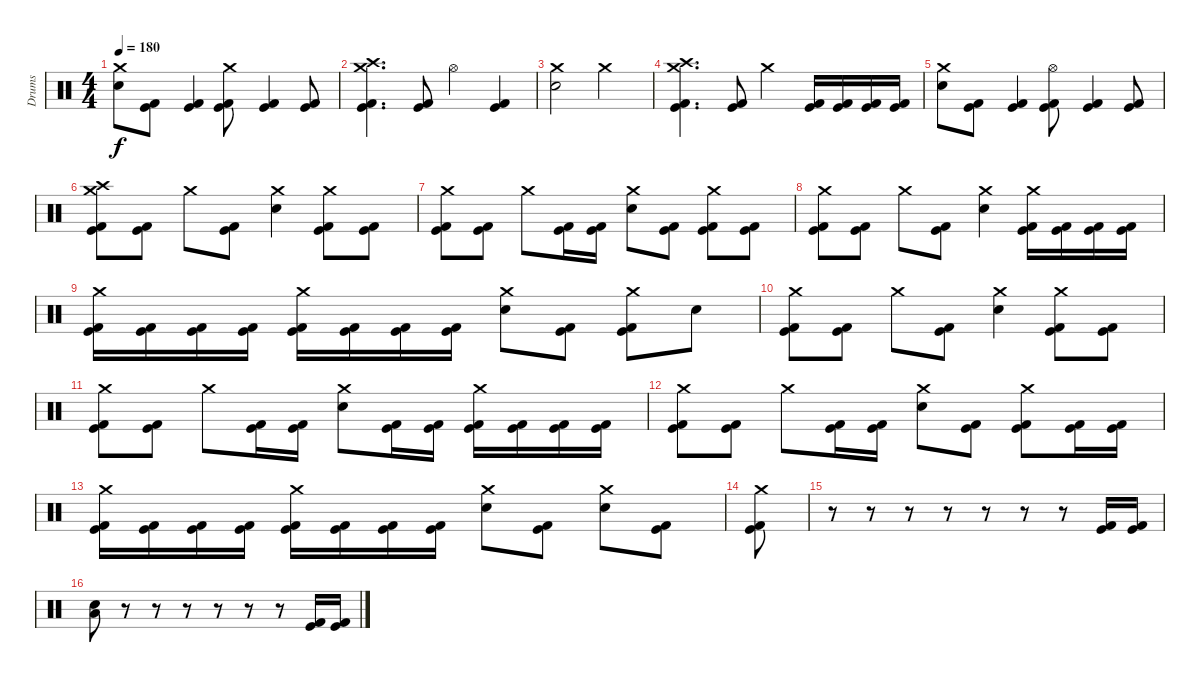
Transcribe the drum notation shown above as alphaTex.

\track ("Drums" "Drums") {instrument percussion}
\staff {score}
\articulation defaults
\ts (4 4)
\tempo 180
\clef neutral
\ks c
("Crash medium (hit)" "Electric Snare (hit)").8{dy f} ("Kick (hit)" "Kick (hit) 2").8 ("Kick (hit)" "Kick (hit) 2").4 ("Crash medium (hit)" "Kick (hit)" "Kick (hit) 2").8 ("Kick (hit)" "Kick (hit) 2").4 ("Kick (hit)" "Kick (hit) 2").8 |
("Crash high (hit)" "Crash medium (hit)" "Kick (hit)" "Kick (hit) 2").4{d} ("Kick (hit)" "Kick (hit) 2").8 "Hi-Hat (open)".4 ("Kick (hit)" "Kick (hit) 2").4 |
("Crash medium (hit)" "Electric Snare (hit)").2 "Crash medium (hit)".2 |
("Crash high (hit)" "Crash medium (hit)" "Kick (hit)" "Kick (hit) 2").4{d} ("Kick (hit)" "Kick (hit) 2").8 "Crash medium (hit)".4 ("Kick (hit)" "Kick (hit) 2").16 ("Kick (hit)" "Kick (hit) 2").16 ("Kick (hit)" "Kick (hit) 2").16 ("Kick (hit)" "Kick (hit) 2").16 |
("Crash medium (hit)" "Electric Snare (hit)").8 ("Kick (hit)" "Kick (hit) 2").8 ("Kick (hit)" "Kick (hit) 2").4 ("Hi-Hat (open)" "Kick (hit)" "Kick (hit) 2").8 ("Kick (hit)" "Kick (hit) 2").4 ("Kick (hit)" "Kick (hit) 2").8 |
("Crash high (hit)" "Crash medium (hit)" "Kick (hit)" "Kick (hit) 2").8 ("Kick (hit)" "Kick (hit) 2").8 "Crash medium (hit)".8 ("Kick (hit)" "Kick (hit) 2").8 ("Crash medium (hit)" "Electric Snare (hit)").4 ("Crash medium (hit)" "Kick (hit)" "Kick (hit) 2").8 ("Kick (hit)" "Kick (hit) 2").8 |
("Crash medium (hit)" "Kick (hit)" "Kick (hit) 2").8 ("Kick (hit)" "Kick (hit) 2").8 "Crash medium (hit)".8 ("Kick (hit)" "Kick (hit) 2").16 ("Kick (hit)" "Kick (hit) 2").16 ("Crash medium (hit)" "Electric Snare (hit)").8 ("Kick (hit)" "Kick (hit) 2").8 ("Crash medium (hit)" "Kick (hit)" "Kick (hit) 2").8 ("Kick (hit)" "Kick (hit) 2").8 |
("Crash medium (hit)" "Kick (hit)" "Kick (hit) 2").8 ("Kick (hit)" "Kick (hit) 2").8 "Crash medium (hit)".8 ("Kick (hit)" "Kick (hit) 2").8 ("Crash medium (hit)" "Electric Snare (hit)").4 ("Crash medium (hit)" "Kick (hit)" "Kick (hit) 2").16 ("Kick (hit)" "Kick (hit) 2").16 ("Kick (hit)" "Kick (hit) 2").16 ("Kick (hit)" "Kick (hit) 2").16 |
("Crash medium (hit)" "Kick (hit)" "Kick (hit) 2").16 ("Kick (hit)" "Kick (hit) 2").16 ("Kick (hit)" "Kick (hit) 2").16 ("Kick (hit)" "Kick (hit) 2").16 ("Crash medium (hit)" "Kick (hit)" "Kick (hit) 2").16 ("Kick (hit)" "Kick (hit) 2").16 ("Kick (hit)" "Kick (hit) 2").16 ("Kick (hit)" "Kick (hit) 2").16 ("Crash medium (hit)" "Electric Snare (hit)").8 ("Kick (hit)" "Kick (hit) 2").8 ("Crash medium (hit)" "Kick (hit)" "Kick (hit) 2").8 "Electric Snare (hit)".8 |
("Crash medium (hit)" "Kick (hit)" "Kick (hit) 2").8 ("Kick (hit)" "Kick (hit) 2").8 "Crash medium (hit)".8 ("Kick (hit)" "Kick (hit) 2").8 ("Crash medium (hit)" "Electric Snare (hit)").4 ("Crash medium (hit)" "Kick (hit)" "Kick (hit) 2").8 ("Kick (hit)" "Kick (hit) 2").8 |
("Crash medium (hit)" "Kick (hit)" "Kick (hit) 2").8 ("Kick (hit)" "Kick (hit) 2").8 "Crash medium (hit)".8 ("Kick (hit)" "Kick (hit) 2").16 ("Kick (hit)" "Kick (hit) 2").16 ("Crash medium (hit)" "Electric Snare (hit)").8 ("Kick (hit)" "Kick (hit) 2").16 ("Kick (hit)" "Kick (hit) 2").16 ("Crash medium (hit)" "Kick (hit)" "Kick (hit) 2").16 ("Kick (hit)" "Kick (hit) 2").16 ("Kick (hit)" "Kick (hit) 2").16 ("Kick (hit)" "Kick (hit) 2").16 |
("Crash medium (hit)" "Kick (hit)" "Kick (hit) 2").8 ("Kick (hit)" "Kick (hit) 2").8 "Crash medium (hit)".8 ("Kick (hit)" "Kick (hit) 2").16 ("Kick (hit)" "Kick (hit) 2").16 ("Crash medium (hit)" "Electric Snare (hit)").8 ("Kick (hit)" "Kick (hit) 2").8 ("Crash medium (hit)" "Kick (hit)" "Kick (hit) 2").8 ("Kick (hit)" "Kick (hit) 2").16 ("Kick (hit)" "Kick (hit) 2").16 |
("Crash medium (hit)" "Kick (hit)" "Kick (hit) 2").16 ("Kick (hit)" "Kick (hit) 2").16 ("Kick (hit)" "Kick (hit) 2").16 ("Kick (hit)" "Kick (hit) 2").16 ("Crash medium (hit)" "Kick (hit)" "Kick (hit) 2").16 ("Kick (hit)" "Kick (hit) 2").16 ("Kick (hit)" "Kick (hit) 2").16 ("Kick (hit)" "Kick (hit) 2").16 ("Crash medium (hit)" "Electric Snare (hit)").8 ("Kick (hit)" "Kick (hit) 2").8 ("Crash medium (hit)" "Electric Snare (hit)").8 ("Kick (hit)" "Kick (hit) 2").8 |
("Crash medium (hit)" "Kick (hit)" "Kick (hit) 2").8 |
r.8 r.8 r.8 r.8 r.8 r.8 r.8 ("Kick (hit)" "Kick (hit) 2").16 ("Kick (hit)" "Kick (hit) 2").16 |
("Electric Snare (hit)" "Low Floor Tom (hit)").8 r.8 r.8 r.8 r.8 r.8 r.8 ("Kick (hit)" "Kick (hit) 2").16 ("Kick (hit)" "Kick (hit) 2").16
